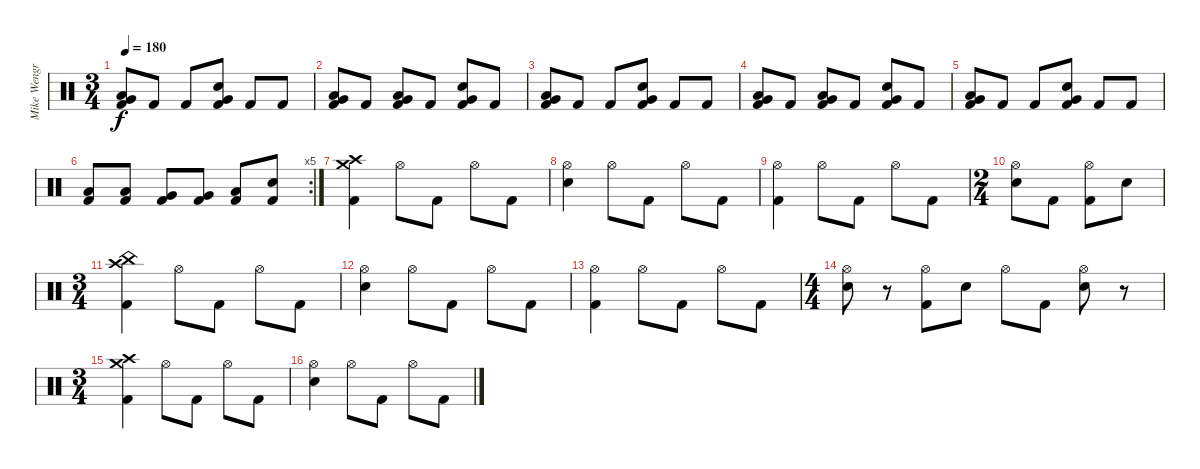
\track ("Mike Wengren" "Mike Wengr") {instrument percussion}
\staff {score}
\articulation defaults
\ts (3 4)
\tempo 180
\clef neutral
\ks c
("Very Low Tom (hit)" "Low Floor Tom (hit)" "Kick (hit) 2").8{dy f} "Kick (hit) 2".8 "Kick (hit) 2".8 ("Very Low Tom (hit)" "Snare (hit) 2" "Kick (hit) 2").8 "Kick (hit) 2".8 "Kick (hit) 2".8 |
("Very Low Tom (hit)" "Low Floor Tom (hit)" "Kick (hit) 2").8 "Kick (hit) 2".8 ("Very Low Tom (hit)" "Low Floor Tom (hit)" "Kick (hit) 2").8 "Kick (hit) 2".8 ("Very Low Tom (hit)" "Snare (hit) 2" "Kick (hit) 2").8 "Kick (hit) 2".8 |
("Very Low Tom (hit)" "Low Floor Tom (hit)" "Kick (hit) 2").8 "Kick (hit) 2".8 "Kick (hit) 2".8 ("Very Low Tom (hit)" "Snare (hit) 2" "Kick (hit) 2").8 "Kick (hit) 2".8 "Kick (hit) 2".8 |
("Very Low Tom (hit)" "Low Floor Tom (hit)" "Kick (hit) 2").8 "Kick (hit) 2".8 ("Very Low Tom (hit)" "Low Floor Tom (hit)" "Kick (hit) 2").8 "Kick (hit) 2".8 ("Very Low Tom (hit)" "Snare (hit) 2" "Kick (hit) 2").8 "Kick (hit) 2".8 |
("Very Low Tom (hit)" "Low Floor Tom (hit)" "Kick (hit) 2").8 "Kick (hit) 2".8 "Kick (hit) 2".8 ("Very Low Tom (hit)" "Snare (hit) 2" "Kick (hit) 2").8 "Kick (hit) 2".8 "Kick (hit) 2".8 |
\rc 5
("Low Tom (hit)" "Kick (hit) 2").8 ("Low Tom (hit)" "Kick (hit) 2").8 ("Very Low Tom (hit)" "Kick (hit) 2").8 ("Very Low Tom (hit)" "Kick (hit) 2").8 ("Low Floor Tom (hit)" "Kick (hit) 2").8 ("Snare (hit) 2" "Kick (hit) 2").8 |
("Crash medium (hit)" "Crash high (hit)" "Kick (hit) 2").4 "Hi-Hat (open)".8 "Kick (hit) 2".8 "Hi-Hat (open)".8 "Kick (hit) 2".8 |
("Hi-Hat (open)" "Snare (hit) 2").4 "Hi-Hat (open)".8 "Kick (hit) 2".8 "Hi-Hat (open)".8 "Kick (hit) 2".8 |
("Hi-Hat (open)" "Kick (hit) 2").4 "Hi-Hat (open)".8 "Kick (hit) 2".8 "Hi-Hat (open)".8 "Kick (hit) 2".8 |
\ts (2 4)
("Hi-Hat (open)" "Snare (hit) 2").8 "Kick (hit) 2".8 ("Hi-Hat (open)" "Kick (hit) 2").8 "Snare (hit) 2".8 |
\ts (3 4)
("China (hit)" "Crash high (hit)" "Kick (hit) 2").4 "Hi-Hat (open)".8 "Kick (hit) 2".8 "Hi-Hat (open)".8 "Kick (hit) 2".8 |
("Hi-Hat (open)" "Snare (hit) 2").4 "Hi-Hat (open)".8 "Kick (hit) 2".8 "Hi-Hat (open)".8 "Kick (hit) 2".8 |
("Hi-Hat (open)" "Kick (hit) 2").4 "Hi-Hat (open)".8 "Kick (hit) 2".8 "Hi-Hat (open)".8 "Kick (hit) 2".8 |
\ts (4 4)
("Hi-Hat (open)" "Snare (hit) 2").8 r.8 ("Hi-Hat (open)" "Kick (hit) 2").8 "Snare (hit) 2".8 "Hi-Hat (open)".8 "Kick (hit) 2".8 ("Hi-Hat (open)" "Snare (hit) 2").8 r.8 |
\ts (3 4)
("Crash medium (hit)" "Crash high (hit)" "Kick (hit) 2").4 "Hi-Hat (open)".8 "Kick (hit) 2".8 "Hi-Hat (open)".8 "Kick (hit) 2".8 |
("Hi-Hat (open)" "Snare (hit) 2").4 "Hi-Hat (open)".8 "Kick (hit) 2".8 "Hi-Hat (open)".8 "Kick (hit) 2".8
